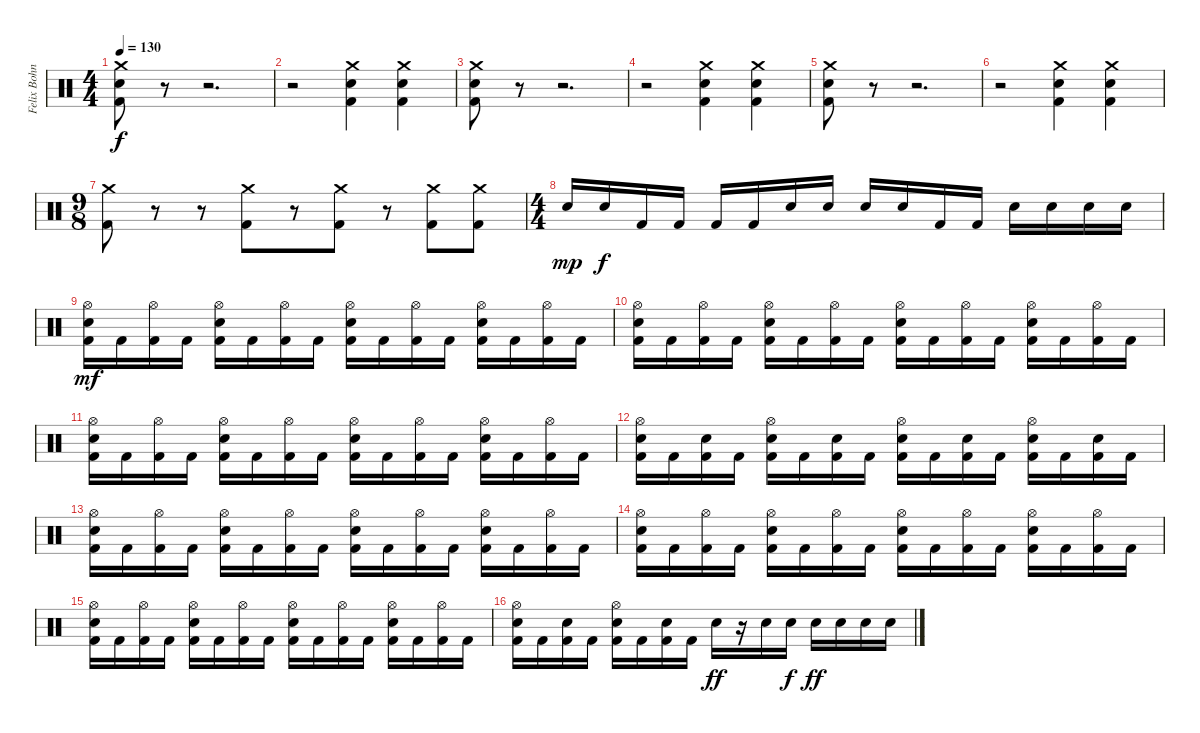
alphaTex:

\track ("Felix Bohnke" "Felix Bohn") {instrument percussion}
\staff {score}
\articulation defaults
\ts (4 4)
\tempo 130
\clef neutral
\ks c
("Crash medium (hit)" "Electric Snare (hit)" "Kick (hit) 2").8{dy f} r.8 r.2{d} |
r.2 ("Crash medium (hit)" "Electric Snare (hit)" "Kick (hit) 2").4 ("Crash medium (hit)" "Electric Snare (hit)" "Kick (hit) 2").4 |
("Crash medium (hit)" "Electric Snare (hit)" "Kick (hit) 2").8 r.8 r.2{d} |
r.2 ("Crash medium (hit)" "Electric Snare (hit)" "Kick (hit) 2").4 ("Crash medium (hit)" "Electric Snare (hit)" "Kick (hit) 2").4 |
("Crash medium (hit)" "Electric Snare (hit)" "Kick (hit) 2").8 r.8 r.2{d} |
r.2 ("Crash medium (hit)" "Electric Snare (hit)" "Kick (hit) 2").4 ("Crash medium (hit)" "Electric Snare (hit)" "Kick (hit) 2").4 |
\ts (9 8)
("Crash medium (hit)" "Kick (hit) 2").8 r.8 r.8 ("Crash medium (hit)" "Kick (hit) 2").8 r.8 ("Crash medium (hit)" "Kick (hit) 2").8 r.8 ("Crash medium (hit)" "Kick (hit) 2").8 ("Crash medium (hit)" "Kick (hit) 2").8 |
\ts (4 4)
"Electric Snare (hit)".16{dy mp} "Electric Snare (hit)".16{dy f} "Kick (hit) 2".16 "Kick (hit) 2".16 "Kick (hit) 2".16 "Kick (hit) 2".16 "Electric Snare (hit)".16 "Electric Snare (hit)".16 "Electric Snare (hit)".16 "Electric Snare (hit)".16 "Kick (hit) 2".16 "Kick (hit) 2".16 "Electric Snare (hit)".16 "Electric Snare (hit)".16 "Electric Snare (hit)".16 "Electric Snare (hit)".16 |
("Hi-Hat (open)" "Electric Snare (hit)" "Kick (hit) 2").16{dy mf} "Kick (hit) 2".16 ("Hi-Hat (open)" "Kick (hit) 2").16 "Kick (hit) 2".16 ("Hi-Hat (open)" "Electric Snare (hit)" "Kick (hit) 2").16 "Kick (hit) 2".16 ("Hi-Hat (open)" "Kick (hit) 2").16 "Kick (hit) 2".16 ("Hi-Hat (open)" "Electric Snare (hit)" "Kick (hit) 2").16 "Kick (hit) 2".16 ("Hi-Hat (open)" "Kick (hit) 2").16 "Kick (hit) 2".16 ("Hi-Hat (open)" "Electric Snare (hit)" "Kick (hit) 2").16 "Kick (hit) 2".16 ("Hi-Hat (open)" "Kick (hit) 2").16 "Kick (hit) 2".16 |
("Hi-Hat (open)" "Electric Snare (hit)" "Kick (hit) 2").16 "Kick (hit) 2".16 ("Hi-Hat (open)" "Kick (hit) 2").16 "Kick (hit) 2".16 ("Hi-Hat (open)" "Electric Snare (hit)" "Kick (hit) 2").16 "Kick (hit) 2".16 ("Hi-Hat (open)" "Kick (hit) 2").16 "Kick (hit) 2".16 ("Hi-Hat (open)" "Electric Snare (hit)" "Kick (hit) 2").16 "Kick (hit) 2".16 ("Hi-Hat (open)" "Kick (hit) 2").16 "Kick (hit) 2".16 ("Hi-Hat (open)" "Electric Snare (hit)" "Kick (hit) 2").16 "Kick (hit) 2".16 ("Hi-Hat (open)" "Kick (hit) 2").16 "Kick (hit) 2".16 |
("Hi-Hat (open)" "Electric Snare (hit)" "Kick (hit) 2").16 "Kick (hit) 2".16 ("Hi-Hat (open)" "Kick (hit) 2").16 "Kick (hit) 2".16 ("Hi-Hat (open)" "Electric Snare (hit)" "Kick (hit) 2").16 "Kick (hit) 2".16 ("Hi-Hat (open)" "Kick (hit) 2").16 "Kick (hit) 2".16 ("Hi-Hat (open)" "Electric Snare (hit)" "Kick (hit) 2").16 "Kick (hit) 2".16 ("Hi-Hat (open)" "Kick (hit) 2").16 "Kick (hit) 2".16 ("Hi-Hat (open)" "Electric Snare (hit)" "Kick (hit) 2").16 "Kick (hit) 2".16 ("Hi-Hat (open)" "Kick (hit) 2").16 "Kick (hit) 2".16 |
("Hi-Hat (open)" "Electric Snare (hit)" "Kick (hit) 2").16 "Kick (hit) 2".16 ("Electric Snare (hit)" "Kick (hit) 2").16 "Kick (hit) 2".16 ("Hi-Hat (open)" "Electric Snare (hit)" "Kick (hit) 2").16 "Kick (hit) 2".16 ("Electric Snare (hit)" "Kick (hit) 2").16 "Kick (hit) 2".16 ("Hi-Hat (open)" "Electric Snare (hit)" "Kick (hit) 2").16 "Kick (hit) 2".16 ("Electric Snare (hit)" "Kick (hit) 2").16 "Kick (hit) 2".16 ("Hi-Hat (open)" "Electric Snare (hit)" "Kick (hit) 2").16 "Kick (hit) 2".16 ("Electric Snare (hit)" "Kick (hit) 2").16 "Kick (hit) 2".16 |
("Hi-Hat (open)" "Electric Snare (hit)" "Kick (hit) 2").16 "Kick (hit) 2".16 ("Hi-Hat (open)" "Kick (hit) 2").16 "Kick (hit) 2".16 ("Hi-Hat (open)" "Electric Snare (hit)" "Kick (hit) 2").16 "Kick (hit) 2".16 ("Hi-Hat (open)" "Kick (hit) 2").16 "Kick (hit) 2".16 ("Hi-Hat (open)" "Electric Snare (hit)" "Kick (hit) 2").16 "Kick (hit) 2".16 ("Hi-Hat (open)" "Kick (hit) 2").16 "Kick (hit) 2".16 ("Hi-Hat (open)" "Electric Snare (hit)" "Kick (hit) 2").16 "Kick (hit) 2".16 ("Hi-Hat (open)" "Kick (hit) 2").16 "Kick (hit) 2".16 |
("Hi-Hat (open)" "Electric Snare (hit)" "Kick (hit) 2").16 "Kick (hit) 2".16 ("Hi-Hat (open)" "Kick (hit) 2").16 "Kick (hit) 2".16 ("Hi-Hat (open)" "Electric Snare (hit)" "Kick (hit) 2").16 "Kick (hit) 2".16 ("Hi-Hat (open)" "Kick (hit) 2").16 "Kick (hit) 2".16 ("Hi-Hat (open)" "Electric Snare (hit)" "Kick (hit) 2").16 "Kick (hit) 2".16 ("Hi-Hat (open)" "Kick (hit) 2").16 "Kick (hit) 2".16 ("Hi-Hat (open)" "Electric Snare (hit)" "Kick (hit) 2").16 "Kick (hit) 2".16 ("Hi-Hat (open)" "Kick (hit) 2").16 "Kick (hit) 2".16 |
("Hi-Hat (open)" "Electric Snare (hit)" "Kick (hit) 2").16 "Kick (hit) 2".16 ("Hi-Hat (open)" "Kick (hit) 2").16 "Kick (hit) 2".16 ("Hi-Hat (open)" "Electric Snare (hit)" "Kick (hit) 2").16 "Kick (hit) 2".16 ("Hi-Hat (open)" "Kick (hit) 2").16 "Kick (hit) 2".16 ("Hi-Hat (open)" "Electric Snare (hit)" "Kick (hit) 2").16 "Kick (hit) 2".16 ("Hi-Hat (open)" "Kick (hit) 2").16 "Kick (hit) 2".16 ("Hi-Hat (open)" "Electric Snare (hit)" "Kick (hit) 2").16 "Kick (hit) 2".16 ("Hi-Hat (open)" "Kick (hit) 2").16 "Kick (hit) 2".16 |
("Hi-Hat (open)" "Electric Snare (hit)" "Kick (hit) 2").16 "Kick (hit) 2".16 ("Electric Snare (hit)" "Kick (hit) 2").16 "Kick (hit) 2".16 ("Hi-Hat (open)" "Electric Snare (hit)" "Kick (hit) 2").16 "Kick (hit) 2".16 ("Electric Snare (hit)" "Kick (hit) 2").16 "Kick (hit) 2".16 "Electric Snare (hit)".16{dy ff} r.16 "Electric Snare (hit)".16 "Electric Snare (hit)".16{dy f} "Electric Snare (hit)".16{dy ff} "Electric Snare (hit)".16 "Electric Snare (hit)".16 "Electric Snare (hit)".16
